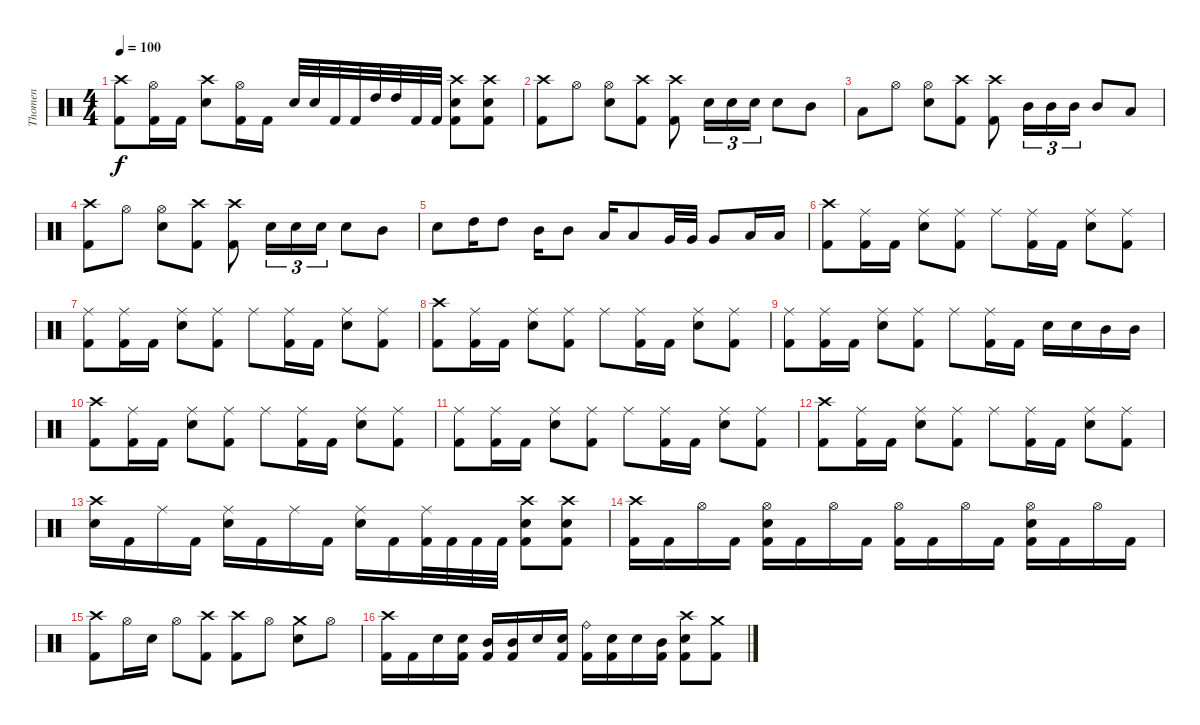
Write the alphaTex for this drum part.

\track ("Thomen" "Thomen") {instrument percussion}
\staff {score}
\articulation defaults
\ts (4 4)
\tempo 100
\clef neutral
\ks c
("Crash high (hit)" "Kick (hit) 2").8{dy f} ("Hi-Hat (open)" "Kick (hit) 2").16 "Kick (hit) 2".16 ("Crash high (hit)" "Snare (hit) 2").8 ("Hi-Hat (open)" "Kick (hit) 2").16 "Kick (hit) 2".16 "Snare (hit) 2".32 "Snare (hit) 2".32 "Kick (hit) 2".32 "Kick (hit) 2".32 "High Tom (hit)".32 "High Tom (hit)".32 "Kick (hit) 2".32 "Kick (hit) 2".32 ("Crash high (hit)" "Snare (hit) 2" "Kick (hit) 2").8 ("Crash high (hit)" "Snare (hit) 2" "Kick (hit) 2").8 |
("Crash high (hit)" "Kick (hit) 2").8 "Hi-Hat (open)".8 ("Hi-Hat (open)" "Snare (hit) 2").8 ("Crash high (hit)" "Kick (hit) 2").8 ("Crash high (hit)" "Kick (hit) 2").8 "Snare (hit) 2".16{tu (3 2)} "Snare (hit) 2".16{tu (3 2)} "Snare (hit) 2".16{tu (3 2)} "Snare (hit) 2".8 "Mid Tom (hit)".8 |
"Low Tom (hit)".8 "Hi-Hat (open)".8 ("Hi-Hat (open)" "Snare (hit) 2").8 ("Crash high (hit)" "Kick (hit) 2").8 ("Crash high (hit)" "Kick (hit) 2").8 "Mid Tom (hit)".16{tu (3 2)} "Mid Tom (hit)".16{tu (3 2)} "Mid Tom (hit)".16{tu (3 2)} "Mid Tom (hit)".8 "Low Tom (hit)".8 |
("Crash high (hit)" "Kick (hit) 2").8 "Hi-Hat (open)".8 ("Hi-Hat (open)" "Snare (hit) 2").8 ("Crash high (hit)" "Kick (hit) 2").8 ("Crash high (hit)" "Kick (hit) 2").8 "Snare (hit) 2".16{tu (3 2)} "Snare (hit) 2".16{tu (3 2)} "Snare (hit) 2".16{tu (3 2)} "Snare (hit) 2".8 "Mid Tom (hit)".8 |
"Snare (hit) 2".8 "High Tom (hit)".16 "High Tom (hit)".8 "Mid Tom (hit)".16 "Mid Tom (hit)".8 "Low Tom (hit)".16 "Low Tom (hit)".8 "Very Low Tom (hit)".32 "Very Low Tom (hit)".32 "Very Low Tom (hit)".8 "Low Floor Tom (hit)".16 "Low Floor Tom (hit)".16 |
("Crash high (hit)" "Kick (hit) 2").8 ("Ride (middle)" "Kick (hit) 2").16 "Kick (hit) 2".16 ("Ride (middle)" "Snare (hit) 2").8 ("Ride (middle)" "Kick (hit) 2").8 "Ride (middle)".8 ("Ride (middle)" "Kick (hit) 2").16 "Kick (hit) 2".16 ("Ride (middle)" "Snare (hit) 2").8 ("Ride (middle)" "Kick (hit) 2").8 |
("Ride (middle)" "Kick (hit) 2").8 ("Ride (middle)" "Kick (hit) 2").16 "Kick (hit) 2".16 ("Ride (middle)" "Snare (hit) 2").8 ("Ride (middle)" "Kick (hit) 2").8 "Ride (middle)".8 ("Ride (middle)" "Kick (hit) 2").16 "Kick (hit) 2".16 ("Ride (middle)" "Snare (hit) 2").8 ("Ride (middle)" "Kick (hit) 2").8 |
("Crash high (hit)" "Kick (hit) 2").8 ("Ride (middle)" "Kick (hit) 2").16 "Kick (hit) 2".16 ("Ride (middle)" "Snare (hit) 2").8 ("Ride (middle)" "Kick (hit) 2").8 "Ride (middle)".8 ("Ride (middle)" "Kick (hit) 2").16 "Kick (hit) 2".16 ("Ride (middle)" "Snare (hit) 2").8 ("Ride (middle)" "Kick (hit) 2").8 |
("Ride (middle)" "Kick (hit) 2").8 ("Ride (middle)" "Kick (hit) 2").16 "Kick (hit) 2".16 ("Ride (middle)" "Snare (hit) 2").8 ("Ride (middle)" "Kick (hit) 2").8 "Ride (middle)".8 ("Ride (middle)" "Kick (hit) 2").16 "Kick (hit) 2".16 "Snare (hit) 2".16 "Snare (hit) 2".16 "Mid Tom (hit)".16 "Mid Tom (hit)".16 |
("Crash high (hit)" "Kick (hit) 2").8 ("Ride (middle)" "Kick (hit) 2").16 "Kick (hit) 2".16 ("Ride (middle)" "Snare (hit) 2").8 ("Ride (middle)" "Kick (hit) 2").8 "Ride (middle)".8 ("Ride (middle)" "Kick (hit) 2").16 "Kick (hit) 2".16 ("Ride (middle)" "Snare (hit) 2").8 ("Ride (middle)" "Kick (hit) 2").8 |
("Ride (middle)" "Kick (hit) 2").8 ("Ride (middle)" "Kick (hit) 2").16 "Kick (hit) 2".16 ("Ride (middle)" "Snare (hit) 2").8 ("Ride (middle)" "Kick (hit) 2").8 "Ride (middle)".8 ("Ride (middle)" "Kick (hit) 2").16 "Kick (hit) 2".16 ("Ride (middle)" "Snare (hit) 2").8 ("Ride (middle)" "Kick (hit) 2").8 |
("Crash high (hit)" "Kick (hit) 2").8 ("Ride (middle)" "Kick (hit) 2").16 "Kick (hit) 2".16 ("Ride (middle)" "Snare (hit) 2").8 ("Ride (middle)" "Kick (hit) 2").8 "Ride (middle)".8 ("Ride (middle)" "Kick (hit) 2").16 "Kick (hit) 2".16 ("Ride (middle)" "Snare (hit) 2").8 ("Ride (middle)" "Kick (hit) 2").8 |
("Crash high (hit)" "Snare (hit) 2").16 "Kick (hit) 2".16 "Ride (middle)".16 "Kick (hit) 2".16 ("Ride (middle)" "Snare (hit) 2").16 "Kick (hit) 2".16 "Ride (middle)".16 "Kick (hit) 2".16 ("Ride (middle)" "Snare (hit) 2").16 "Kick (hit) 2".16 ("Ride (middle)" "Kick (hit) 2").32 "Kick (hit) 2".32 "Kick (hit) 2".32 "Kick (hit) 2".32 ("Crash high (hit)" "Snare (hit) 2" "Kick (hit) 2").8 ("Crash high (hit)" "Snare (hit) 2" "Kick (hit) 2").8 |
("Crash high (hit)" "Kick (hit) 2").16 "Kick (hit) 2".16 "Hi-Hat (open)".16 "Kick (hit) 2".16 ("Hi-Hat (open)" "Snare (hit) 2" "Kick (hit) 2").16 "Kick (hit) 2".16 "Hi-Hat (open)".16 "Kick (hit) 2".16 ("Hi-Hat (open)" "Kick (hit) 2").16 "Kick (hit) 2".16 "Hi-Hat (open)".16 "Kick (hit) 2".16 ("Hi-Hat (open)" "Snare (hit) 2" "Kick (hit) 2").16 "Kick (hit) 2".16 "Hi-Hat (open)".16 "Kick (hit) 2".16 |
("Crash high (hit)" "Kick (hit) 2").8 "Hi-Hat (open)".16 "Snare (hit) 2".16 "Hi-Hat (open)".8 ("Crash high (hit)" "Kick (hit) 2").8 ("Crash high (hit)" "Kick (hit) 2").8 "Hi-Hat (open)".8 ("Crash medium (hit)" "Snare (hit) 2").8 "Hi-Hat (open)".8 |
("Crash high (hit)" "Kick (hit) 2").16 "Kick (hit) 2".16 "Snare (hit) 2".16 ("Snare (hit) 2" "Kick (hit) 2").16 ("Mid Tom (hit)" "Kick (hit) 2").16 ("Mid Tom (hit)" "Kick (hit) 2").16 "Snare (hit) 2".16 ("Snare (hit) 2" "Kick (hit) 2").16 ("Ride (bell)" "Kick (hit) 2").16 ("Snare (hit) 2" "Kick (hit) 2").16 "Snare (hit) 2".16 ("Mid Tom (hit)" "Kick (hit) 2").16 ("Crash high (hit)" "Snare (hit) 2" "Kick (hit) 2").8 ("Crash medium (hit)" "Kick (hit) 2").8
